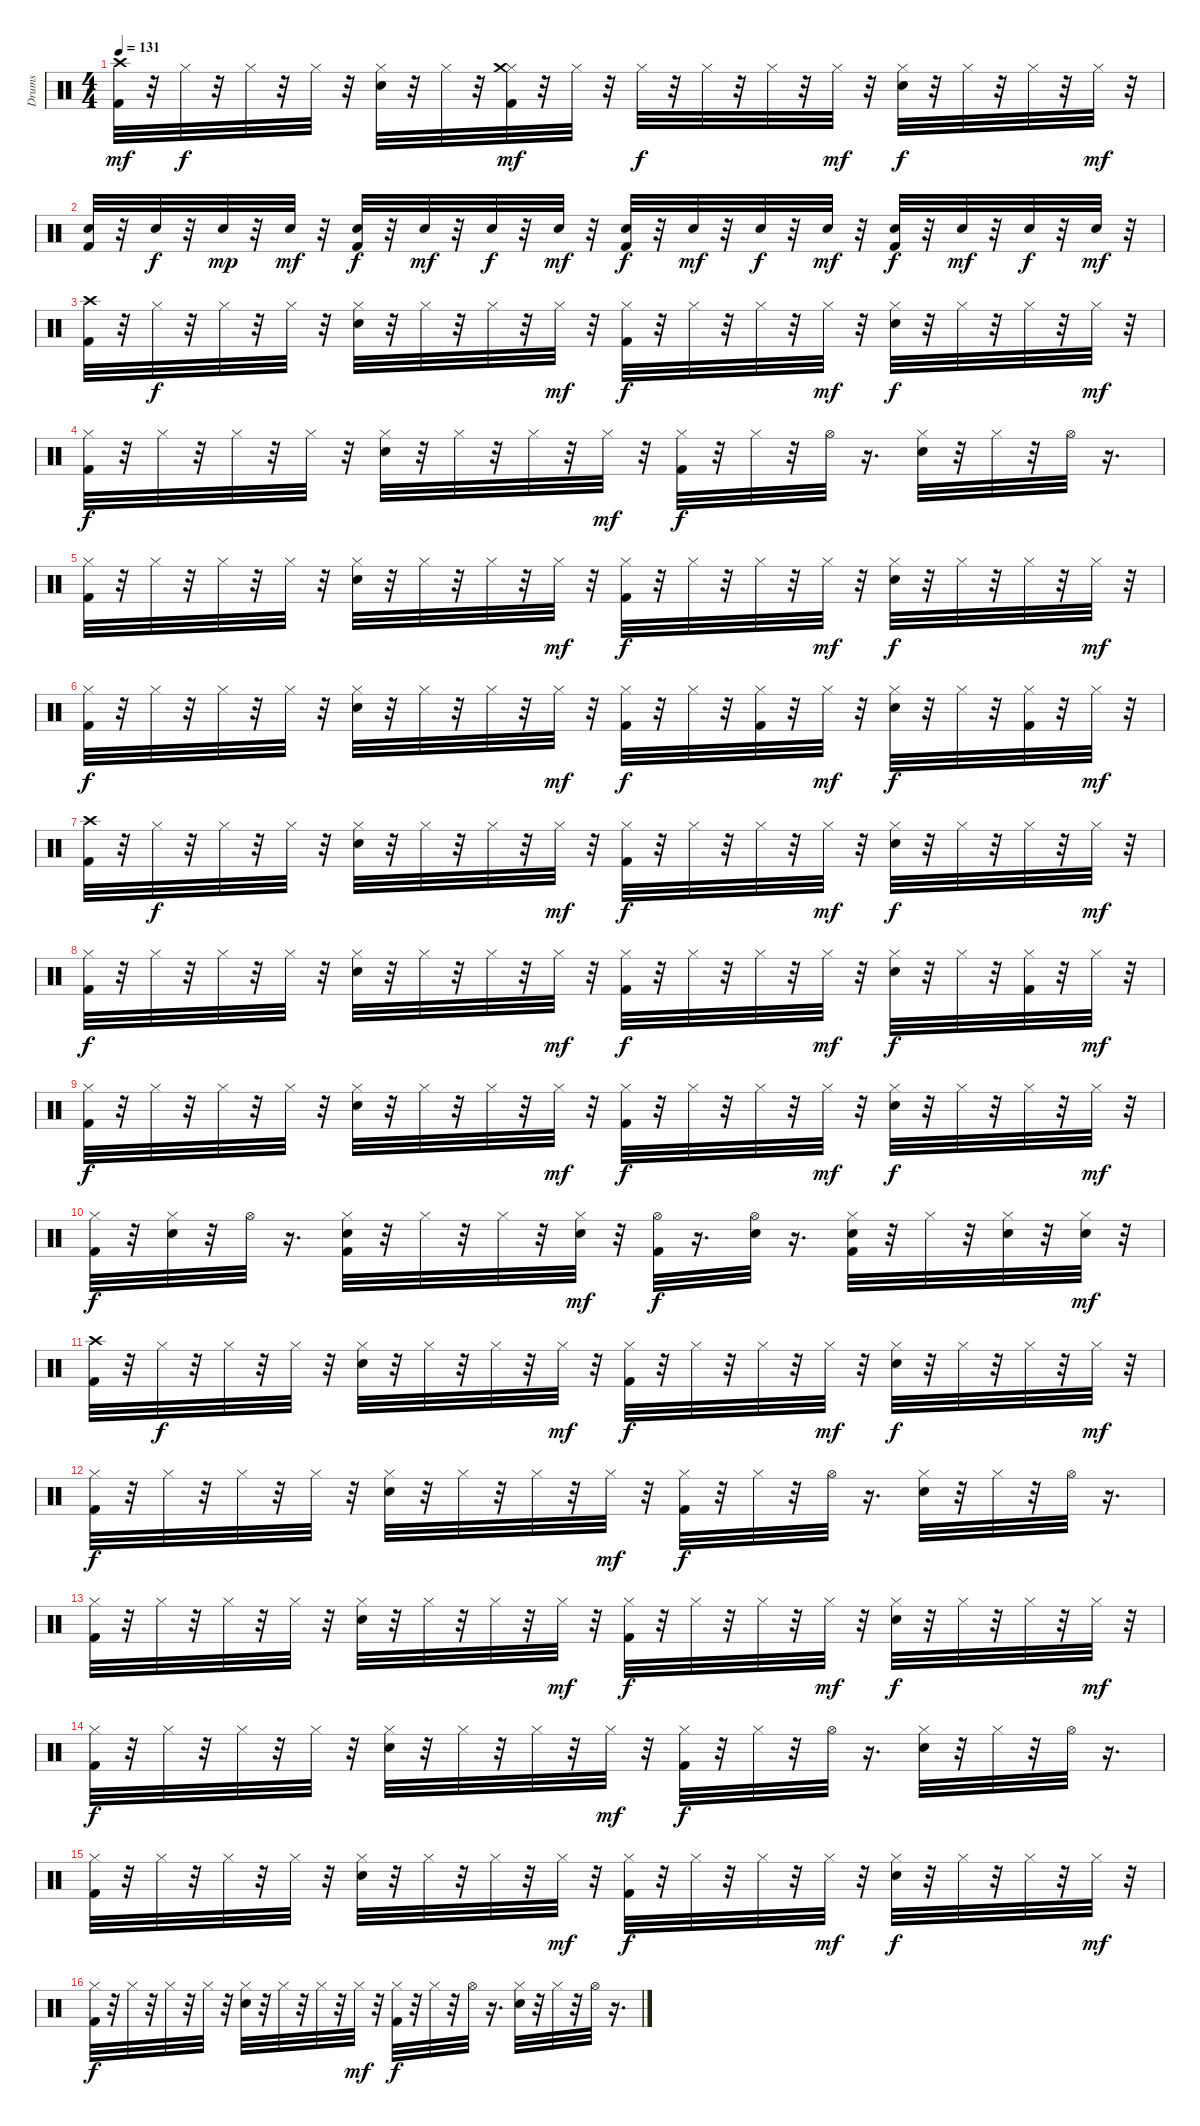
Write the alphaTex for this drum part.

\track ("Drums" "Drums") {instrument percussion}
\staff {score}
\articulation defaults
\ts (4 4)
\tempo 131
\clef neutral
\ks c
("Crash high (hit)" "Kick (hit) 2").32{dy mf} r.32 "Hi-Hat (closed)".32{dy f} r.32 "Hi-Hat (closed)".32 r.32 "Hi-Hat (closed)".32 r.32 ("Hi-Hat (closed)" "Snare (hit) 2").32 r.32 "Hi-Hat (closed)".32 r.32 ("Kick (hit) 2" "Hi-Hat (closed)" "Crash medium (hit)").32{dy mf} r.32 "Hi-Hat (closed)".32 r.32 "Hi-Hat (closed)".32{dy f} r.32 "Hi-Hat (closed)".32 r.32 "Hi-Hat (closed)".32 r.32 "Hi-Hat (closed)".32{dy mf} r.32 ("Snare (hit) 2" "Hi-Hat (closed)").32{dy f} r.32 "Hi-Hat (closed)".32 r.32 "Hi-Hat (closed)".32 r.32 "Hi-Hat (closed)".32{dy mf} r.32 |
("Snare (hit) 2" "Kick (hit) 2").32 r.32 "Snare (hit) 2".32{dy f} r.32 "Snare (hit) 2".32{dy mp} r.32 "Snare (hit) 2".32{dy mf} r.32 ("Snare (hit) 2" "Kick (hit) 2").32{dy f} r.32 "Snare (hit) 2".32{dy mf} r.32 "Snare (hit) 2".32{dy f} r.32 "Snare (hit) 2".32{dy mf} r.32 ("Kick (hit) 2" "Snare (hit) 2").32{dy f} r.32 "Snare (hit) 2".32{dy mf} r.32 "Snare (hit) 2".32{dy f} r.32 "Snare (hit) 2".32{dy mf} r.32 ("Kick (hit) 2" "Snare (hit) 2").32{dy f} r.32 "Snare (hit) 2".32{dy mf} r.32 "Snare (hit) 2".32{dy f} r.32 "Snare (hit) 2".32{dy mf} r.32 |
("Crash high (hit)" "Kick (hit) 2").32 r.32 "Hi-Hat (closed)".32{dy f} r.32 "Hi-Hat (closed)".32 r.32 "Hi-Hat (closed)".32 r.32 ("Hi-Hat (closed)" "Snare (hit) 2").32 r.32 "Hi-Hat (closed)".32 r.32 "Hi-Hat (closed)".32 r.32 "Hi-Hat (closed)".32{dy mf} r.32 ("Hi-Hat (closed)" "Kick (hit) 2").32{dy f} r.32 "Hi-Hat (closed)".32 r.32 "Hi-Hat (closed)".32 r.32 "Hi-Hat (closed)".32{dy mf} r.32 ("Hi-Hat (closed)" "Snare (hit) 2").32{dy f} r.32 "Hi-Hat (closed)".32 r.32 "Hi-Hat (closed)".32 r.32 "Hi-Hat (closed)".32{dy mf} r.32 |
("Kick (hit) 2" "Hi-Hat (closed)").32{dy f} r.32 "Hi-Hat (closed)".32 r.32 "Hi-Hat (closed)".32 r.32 "Hi-Hat (closed)".32 r.32 ("Snare (hit) 2" "Hi-Hat (closed)").32 r.32 "Hi-Hat (closed)".32 r.32 "Hi-Hat (closed)".32 r.32 "Hi-Hat (closed)".32{dy mf} r.32 ("Kick (hit) 2" "Hi-Hat (closed)").32{dy f} r.32 "Hi-Hat (closed)".32 r.32 "Hi-Hat (open)".32 r.16{d} ("Snare (hit) 2" "Hi-Hat (closed)").32 r.32 "Hi-Hat (closed)".32 r.32 "Hi-Hat (open)".32 r.16{d} |
("Kick (hit) 2" "Hi-Hat (closed)").32 r.32 "Hi-Hat (closed)".32 r.32 "Hi-Hat (closed)".32 r.32 "Hi-Hat (closed)".32 r.32 ("Hi-Hat (closed)" "Snare (hit) 2").32 r.32 "Hi-Hat (closed)".32 r.32 "Hi-Hat (closed)".32 r.32 "Hi-Hat (closed)".32{dy mf} r.32 ("Hi-Hat (closed)" "Kick (hit) 2").32{dy f} r.32 "Hi-Hat (closed)".32 r.32 "Hi-Hat (closed)".32 r.32 "Hi-Hat (closed)".32{dy mf} r.32 ("Hi-Hat (closed)" "Snare (hit) 2").32{dy f} r.32 "Hi-Hat (closed)".32 r.32 "Hi-Hat (closed)".32 r.32 "Hi-Hat (closed)".32{dy mf} r.32 |
("Kick (hit) 2" "Hi-Hat (closed)").32{dy f} r.32 "Hi-Hat (closed)".32 r.32 "Hi-Hat (closed)".32 r.32 "Hi-Hat (closed)".32 r.32 ("Hi-Hat (closed)" "Snare (hit) 2").32 r.32 "Hi-Hat (closed)".32 r.32 "Hi-Hat (closed)".32 r.32 "Hi-Hat (closed)".32{dy mf} r.32 ("Hi-Hat (closed)" "Kick (hit) 2").32{dy f} r.32 "Hi-Hat (closed)".32 r.32 ("Kick (hit) 2" "Hi-Hat (closed)").32 r.32 "Hi-Hat (closed)".32{dy mf} r.32 ("Hi-Hat (closed)" "Snare (hit) 2").32{dy f} r.32 "Hi-Hat (closed)".32 r.32 ("Kick (hit) 2" "Hi-Hat (closed)").32 r.32 "Hi-Hat (closed)".32{dy mf} r.32 |
("Crash high (hit)" "Kick (hit) 2").32 r.32 "Hi-Hat (closed)".32{dy f} r.32 "Hi-Hat (closed)".32 r.32 "Hi-Hat (closed)".32 r.32 ("Hi-Hat (closed)" "Snare (hit) 2").32 r.32 "Hi-Hat (closed)".32 r.32 "Hi-Hat (closed)".32 r.32 "Hi-Hat (closed)".32{dy mf} r.32 ("Hi-Hat (closed)" "Kick (hit) 2").32{dy f} r.32 "Hi-Hat (closed)".32 r.32 "Hi-Hat (closed)".32 r.32 "Hi-Hat (closed)".32{dy mf} r.32 ("Hi-Hat (closed)" "Snare (hit) 2").32{dy f} r.32 "Hi-Hat (closed)".32 r.32 "Hi-Hat (closed)".32 r.32 "Hi-Hat (closed)".32{dy mf} r.32 |
("Kick (hit) 2" "Hi-Hat (closed)").32{dy f} r.32 "Hi-Hat (closed)".32 r.32 "Hi-Hat (closed)".32 r.32 "Hi-Hat (closed)".32 r.32 ("Hi-Hat (closed)" "Snare (hit) 2").32 r.32 "Hi-Hat (closed)".32 r.32 "Hi-Hat (closed)".32 r.32 "Hi-Hat (closed)".32{dy mf} r.32 ("Kick (hit) 2" "Hi-Hat (closed)").32{dy f} r.32 "Hi-Hat (closed)".32 r.32 "Hi-Hat (closed)".32 r.32 "Hi-Hat (closed)".32{dy mf} r.32 ("Hi-Hat (closed)" "Snare (hit) 2").32{dy f} r.32 "Hi-Hat (closed)".32 r.32 ("Kick (hit) 2" "Hi-Hat (closed)").32 r.32 "Hi-Hat (closed)".32{dy mf} r.32 |
("Kick (hit) 2" "Hi-Hat (closed)").32{dy f} r.32 "Hi-Hat (closed)".32 r.32 "Hi-Hat (closed)".32 r.32 "Hi-Hat (closed)".32 r.32 ("Hi-Hat (closed)" "Snare (hit) 2").32 r.32 "Hi-Hat (closed)".32 r.32 "Hi-Hat (closed)".32 r.32 "Hi-Hat (closed)".32{dy mf} r.32 ("Hi-Hat (closed)" "Kick (hit) 2").32{dy f} r.32 "Hi-Hat (closed)".32 r.32 "Hi-Hat (closed)".32 r.32 "Hi-Hat (closed)".32{dy mf} r.32 ("Hi-Hat (closed)" "Snare (hit) 2").32{dy f} r.32 "Hi-Hat (closed)".32 r.32 "Hi-Hat (closed)".32 r.32 "Hi-Hat (closed)".32{dy mf} r.32 |
("Kick (hit) 2" "Hi-Hat (closed)").32{dy f} r.32 ("Snare (hit) 2" "Hi-Hat (closed)").32 r.32 "Hi-Hat (open)".32 r.16{d} ("Kick (hit) 2" "Snare (hit) 2" "Hi-Hat (closed)").32 r.32 "Hi-Hat (closed)".32 r.32 "Hi-Hat (closed)".32 r.32 ("Snare (hit) 2" "Hi-Hat (closed)").32{dy mf} r.32 ("Hi-Hat (open)" "Kick (hit) 2").32{dy f} r.16{d} ("Snare (hit) 2" "Hi-Hat (open)").32 r.16{d} ("Snare (hit) 2" "Hi-Hat (closed)" "Kick (hit) 2").32 r.32 "Hi-Hat (closed)".32 r.32 ("Snare (hit) 2" "Hi-Hat (closed)").32 r.32 ("Snare (hit) 2" "Hi-Hat (closed)").32{dy mf} r.32 |
("Crash high (hit)" "Kick (hit) 2").32 r.32 "Hi-Hat (closed)".32{dy f} r.32 "Hi-Hat (closed)".32 r.32 "Hi-Hat (closed)".32 r.32 ("Hi-Hat (closed)" "Snare (hit) 2").32 r.32 "Hi-Hat (closed)".32 r.32 "Hi-Hat (closed)".32 r.32 "Hi-Hat (closed)".32{dy mf} r.32 ("Hi-Hat (closed)" "Kick (hit) 2").32{dy f} r.32 "Hi-Hat (closed)".32 r.32 "Hi-Hat (closed)".32 r.32 "Hi-Hat (closed)".32{dy mf} r.32 ("Hi-Hat (closed)" "Snare (hit) 2").32{dy f} r.32 "Hi-Hat (closed)".32 r.32 "Hi-Hat (closed)".32 r.32 "Hi-Hat (closed)".32{dy mf} r.32 |
("Kick (hit) 2" "Hi-Hat (closed)").32{dy f} r.32 "Hi-Hat (closed)".32 r.32 "Hi-Hat (closed)".32 r.32 "Hi-Hat (closed)".32 r.32 ("Snare (hit) 2" "Hi-Hat (closed)").32 r.32 "Hi-Hat (closed)".32 r.32 "Hi-Hat (closed)".32 r.32 "Hi-Hat (closed)".32{dy mf} r.32 ("Kick (hit) 2" "Hi-Hat (closed)").32{dy f} r.32 "Hi-Hat (closed)".32 r.32 "Hi-Hat (open)".32 r.16{d} ("Snare (hit) 2" "Hi-Hat (closed)").32 r.32 "Hi-Hat (closed)".32 r.32 "Hi-Hat (open)".32 r.16{d} |
("Kick (hit) 2" "Hi-Hat (closed)").32 r.32 "Hi-Hat (closed)".32 r.32 "Hi-Hat (closed)".32 r.32 "Hi-Hat (closed)".32 r.32 ("Hi-Hat (closed)" "Snare (hit) 2").32 r.32 "Hi-Hat (closed)".32 r.32 "Hi-Hat (closed)".32 r.32 "Hi-Hat (closed)".32{dy mf} r.32 ("Hi-Hat (closed)" "Kick (hit) 2").32{dy f} r.32 "Hi-Hat (closed)".32 r.32 "Hi-Hat (closed)".32 r.32 "Hi-Hat (closed)".32{dy mf} r.32 ("Hi-Hat (closed)" "Snare (hit) 2").32{dy f} r.32 "Hi-Hat (closed)".32 r.32 "Hi-Hat (closed)".32 r.32 "Hi-Hat (closed)".32{dy mf} r.32 |
("Kick (hit) 2" "Hi-Hat (closed)").32{dy f} r.32 "Hi-Hat (closed)".32 r.32 "Hi-Hat (closed)".32 r.32 "Hi-Hat (closed)".32 r.32 ("Snare (hit) 2" "Hi-Hat (closed)").32 r.32 "Hi-Hat (closed)".32 r.32 "Hi-Hat (closed)".32 r.32 "Hi-Hat (closed)".32{dy mf} r.32 ("Kick (hit) 2" "Hi-Hat (closed)").32{dy f} r.32 "Hi-Hat (closed)".32 r.32 "Hi-Hat (open)".32 r.16{d} ("Snare (hit) 2" "Hi-Hat (closed)").32 r.32 "Hi-Hat (closed)".32 r.32 "Hi-Hat (open)".32 r.16{d} |
("Kick (hit) 2" "Hi-Hat (closed)").32 r.32 "Hi-Hat (closed)".32 r.32 "Hi-Hat (closed)".32 r.32 "Hi-Hat (closed)".32 r.32 ("Hi-Hat (closed)" "Snare (hit) 2").32 r.32 "Hi-Hat (closed)".32 r.32 "Hi-Hat (closed)".32 r.32 "Hi-Hat (closed)".32{dy mf} r.32 ("Hi-Hat (closed)" "Kick (hit) 2").32{dy f} r.32 "Hi-Hat (closed)".32 r.32 "Hi-Hat (closed)".32 r.32 "Hi-Hat (closed)".32{dy mf} r.32 ("Hi-Hat (closed)" "Snare (hit) 2").32{dy f} r.32 "Hi-Hat (closed)".32 r.32 "Hi-Hat (closed)".32 r.32 "Hi-Hat (closed)".32{dy mf} r.32 |
("Kick (hit) 2" "Hi-Hat (closed)").32{dy f} r.32 "Hi-Hat (closed)".32 r.32 "Hi-Hat (closed)".32 r.32 "Hi-Hat (closed)".32 r.32 ("Snare (hit) 2" "Hi-Hat (closed)").32 r.32 "Hi-Hat (closed)".32 r.32 "Hi-Hat (closed)".32 r.32 "Hi-Hat (closed)".32{dy mf} r.32 ("Kick (hit) 2" "Hi-Hat (closed)").32{dy f} r.32 "Hi-Hat (closed)".32 r.32 "Hi-Hat (open)".32 r.16{d} ("Snare (hit) 2" "Hi-Hat (closed)").32 r.32 "Hi-Hat (closed)".32 r.32 "Hi-Hat (open)".32 r.16{d}
